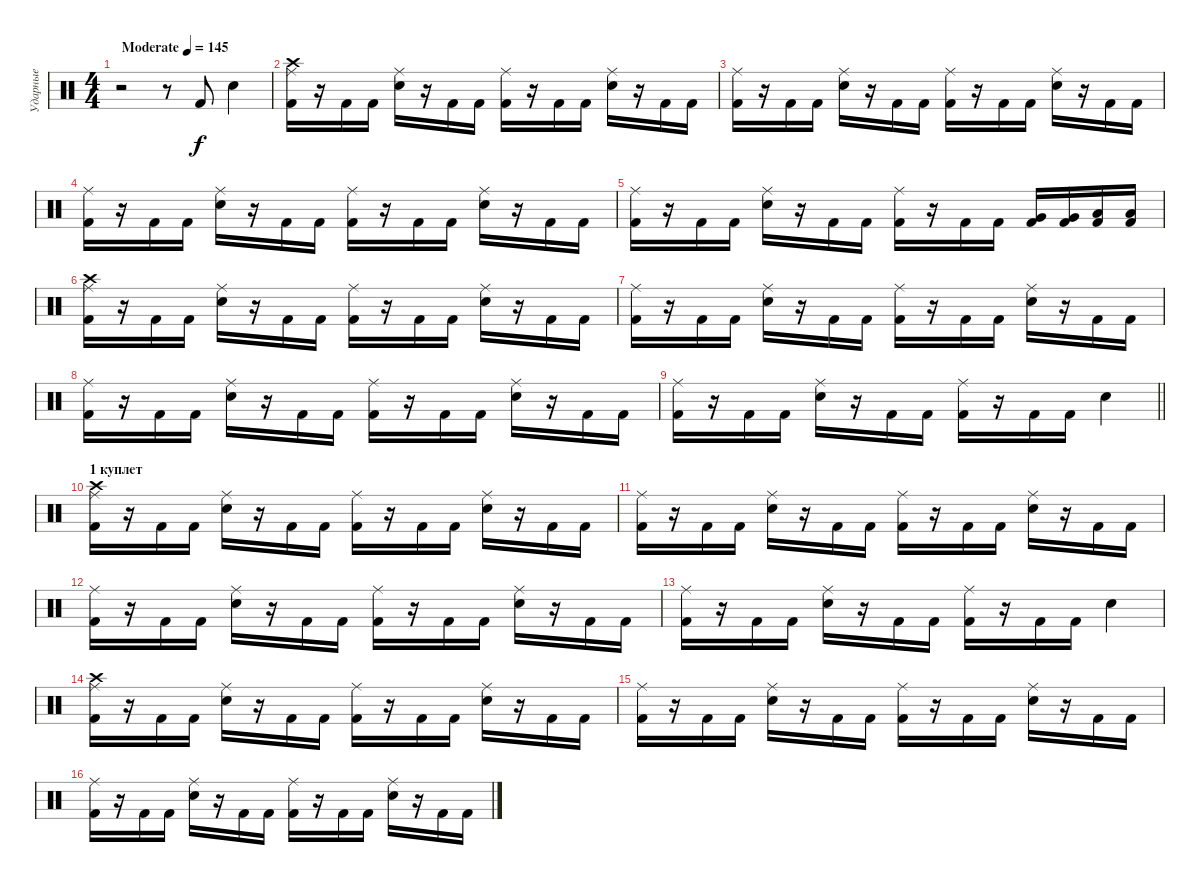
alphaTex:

\track ("Ударные" "Ударные") {instrument percussion}
\staff {score}
\articulation defaults
\ts (4 4)
\tempo (145 "Moderate")
\clef neutral
\ks c
r.2{dy f} r.8 "Kick (hit) 2".8 "Snare (hit) 2".4 |
("Ride (middle)" "Kick (hit) 2" "Crash high (hit)").16 r.16 "Kick (hit) 2".16 "Kick (hit) 2".16 ("Ride (middle)" "Snare (hit) 2").16 r.16 "Kick (hit) 2".16 "Kick (hit) 2".16 ("Ride (middle)" "Kick (hit) 2").16 r.16 "Kick (hit) 2".16 "Kick (hit) 2".16 ("Ride (middle)" "Snare (hit) 2").16 r.16 "Kick (hit) 2".16 "Kick (hit) 2".16 |
("Ride (middle)" "Kick (hit) 2").16 r.16 "Kick (hit) 2".16 "Kick (hit) 2".16 ("Ride (middle)" "Snare (hit) 2").16 r.16 "Kick (hit) 2".16 "Kick (hit) 2".16 ("Ride (middle)" "Kick (hit) 2").16 r.16 "Kick (hit) 2".16 "Kick (hit) 2".16 ("Ride (middle)" "Snare (hit) 2").16 r.16 "Kick (hit) 2".16 "Kick (hit) 2".16 |
("Ride (middle)" "Kick (hit) 2").16 r.16 "Kick (hit) 2".16 "Kick (hit) 2".16 ("Ride (middle)" "Snare (hit) 2").16 r.16 "Kick (hit) 2".16 "Kick (hit) 2".16 ("Ride (middle)" "Kick (hit) 2").16 r.16 "Kick (hit) 2".16 "Kick (hit) 2".16 ("Ride (middle)" "Snare (hit) 2").16 r.16 "Kick (hit) 2".16 "Kick (hit) 2".16 |
("Ride (middle)" "Kick (hit) 2").16 r.16 "Kick (hit) 2".16 "Kick (hit) 2".16 ("Ride (middle)" "Snare (hit) 2").16 r.16 "Kick (hit) 2".16 "Kick (hit) 2".16 ("Ride (middle)" "Kick (hit) 2").16 r.16 "Kick (hit) 2".16 "Kick (hit) 2".16 ("Very Low Tom (hit)" "Kick (hit) 2").16 ("Very Low Tom (hit)" "Kick (hit) 2").16 ("Low Floor Tom (hit)" "Kick (hit) 2").16 ("Low Floor Tom (hit)" "Kick (hit) 2").16 |
("Ride (middle)" "Kick (hit) 2" "Crash high (hit)").16 r.16 "Kick (hit) 2".16 "Kick (hit) 2".16 ("Ride (middle)" "Snare (hit) 2").16 r.16 "Kick (hit) 2".16 "Kick (hit) 2".16 ("Ride (middle)" "Kick (hit) 2").16 r.16 "Kick (hit) 2".16 "Kick (hit) 2".16 ("Ride (middle)" "Snare (hit) 2").16 r.16 "Kick (hit) 2".16 "Kick (hit) 2".16 |
("Ride (middle)" "Kick (hit) 2").16 r.16 "Kick (hit) 2".16 "Kick (hit) 2".16 ("Ride (middle)" "Snare (hit) 2").16 r.16 "Kick (hit) 2".16 "Kick (hit) 2".16 ("Ride (middle)" "Kick (hit) 2").16 r.16 "Kick (hit) 2".16 "Kick (hit) 2".16 ("Ride (middle)" "Snare (hit) 2").16 r.16 "Kick (hit) 2".16 "Kick (hit) 2".16 |
("Ride (middle)" "Kick (hit) 2").16 r.16 "Kick (hit) 2".16 "Kick (hit) 2".16 ("Ride (middle)" "Snare (hit) 2").16 r.16 "Kick (hit) 2".16 "Kick (hit) 2".16 ("Ride (middle)" "Kick (hit) 2").16 r.16 "Kick (hit) 2".16 "Kick (hit) 2".16 ("Ride (middle)" "Snare (hit) 2").16 r.16 "Kick (hit) 2".16 "Kick (hit) 2".16 |
\barLineRight lightlight
("Ride (middle)" "Kick (hit) 2").16 r.16 "Kick (hit) 2".16 "Kick (hit) 2".16 ("Ride (middle)" "Snare (hit) 2").16 r.16 "Kick (hit) 2".16 "Kick (hit) 2".16 ("Ride (middle)" "Kick (hit) 2").16 r.16 "Kick (hit) 2".16 "Kick (hit) 2".16 "Snare (hit) 2".4 |
\section ("" "1 куплет")
("Ride (middle)" "Kick (hit) 2" "Crash high (hit)").16 r.16 "Kick (hit) 2".16 "Kick (hit) 2".16 ("Ride (middle)" "Snare (hit) 2").16 r.16 "Kick (hit) 2".16 "Kick (hit) 2".16 ("Ride (middle)" "Kick (hit) 2").16 r.16 "Kick (hit) 2".16 "Kick (hit) 2".16 ("Ride (middle)" "Snare (hit) 2").16 r.16 "Kick (hit) 2".16 "Kick (hit) 2".16 |
("Ride (middle)" "Kick (hit) 2").16 r.16 "Kick (hit) 2".16 "Kick (hit) 2".16 ("Ride (middle)" "Snare (hit) 2").16 r.16 "Kick (hit) 2".16 "Kick (hit) 2".16 ("Ride (middle)" "Kick (hit) 2").16 r.16 "Kick (hit) 2".16 "Kick (hit) 2".16 ("Ride (middle)" "Snare (hit) 2").16 r.16 "Kick (hit) 2".16 "Kick (hit) 2".16 |
("Ride (middle)" "Kick (hit) 2").16 r.16 "Kick (hit) 2".16 "Kick (hit) 2".16 ("Ride (middle)" "Snare (hit) 2").16 r.16 "Kick (hit) 2".16 "Kick (hit) 2".16 ("Ride (middle)" "Kick (hit) 2").16 r.16 "Kick (hit) 2".16 "Kick (hit) 2".16 ("Ride (middle)" "Snare (hit) 2").16 r.16 "Kick (hit) 2".16 "Kick (hit) 2".16 |
("Ride (middle)" "Kick (hit) 2").16 r.16 "Kick (hit) 2".16 "Kick (hit) 2".16 ("Ride (middle)" "Snare (hit) 2").16 r.16 "Kick (hit) 2".16 "Kick (hit) 2".16 ("Ride (middle)" "Kick (hit) 2").16 r.16 "Kick (hit) 2".16 "Kick (hit) 2".16 "Snare (hit) 2".4 |
("Ride (middle)" "Kick (hit) 2" "Crash high (hit)").16 r.16 "Kick (hit) 2".16 "Kick (hit) 2".16 ("Ride (middle)" "Snare (hit) 2").16 r.16 "Kick (hit) 2".16 "Kick (hit) 2".16 ("Ride (middle)" "Kick (hit) 2").16 r.16 "Kick (hit) 2".16 "Kick (hit) 2".16 ("Ride (middle)" "Snare (hit) 2").16 r.16 "Kick (hit) 2".16 "Kick (hit) 2".16 |
("Ride (middle)" "Kick (hit) 2").16 r.16 "Kick (hit) 2".16 "Kick (hit) 2".16 ("Ride (middle)" "Snare (hit) 2").16 r.16 "Kick (hit) 2".16 "Kick (hit) 2".16 ("Ride (middle)" "Kick (hit) 2").16 r.16 "Kick (hit) 2".16 "Kick (hit) 2".16 ("Ride (middle)" "Snare (hit) 2").16 r.16 "Kick (hit) 2".16 "Kick (hit) 2".16 |
("Ride (middle)" "Kick (hit) 2").16 r.16 "Kick (hit) 2".16 "Kick (hit) 2".16 ("Ride (middle)" "Snare (hit) 2").16 r.16 "Kick (hit) 2".16 "Kick (hit) 2".16 ("Ride (middle)" "Kick (hit) 2").16 r.16 "Kick (hit) 2".16 "Kick (hit) 2".16 ("Ride (middle)" "Snare (hit) 2").16 r.16 "Kick (hit) 2".16 "Kick (hit) 2".16
